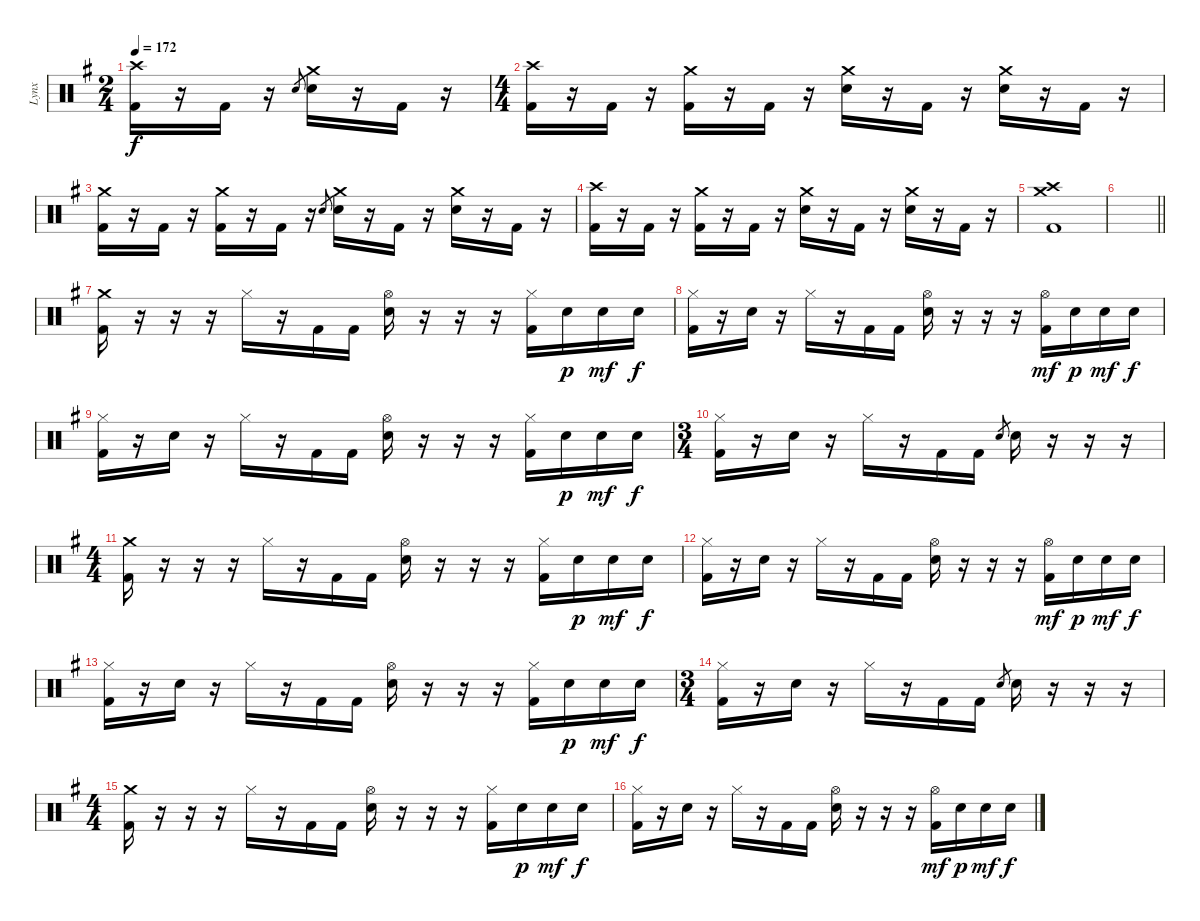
\track ("Lynx" "Lynx") {instrument percussion}
\staff {score}
\articulation defaults
\ts (2 4)
\tempo 172
\clef neutral
\ks g
("Crash high (hit)" "Kick (hit) 2").16{dy f} r.16 "Kick (hit) 2".16 r.16 "Electric Snare (hit)".8{gr} ("Crash medium (hit)" "Electric Snare (hit)").16 r.16 "Kick (hit) 2".16 r.16 |
\ts (4 4)
("Crash high (hit)" "Kick (hit) 2").16 r.16 "Kick (hit) 2".16 r.16 ("Crash medium (hit)" "Kick (hit) 2").16 r.16 "Kick (hit) 2".16 r.16 ("Crash medium (hit)" "Electric Snare (hit)").16 r.16 "Kick (hit) 2".16 r.16 ("Crash medium (hit)" "Electric Snare (hit)").16 r.16 "Kick (hit) 2".16 r.16 |
("Crash medium (hit)" "Kick (hit) 2").16 r.16 "Kick (hit) 2".16 r.16 ("Crash medium (hit)" "Kick (hit) 2").16 r.16 "Kick (hit) 2".16 r.16 "Electric Snare (hit)".8{gr} ("Crash medium (hit)" "Electric Snare (hit)").16 r.16 "Kick (hit) 2".16 r.16 ("Crash medium (hit)" "Electric Snare (hit)").16 r.16 "Kick (hit) 2".16 r.16 |
("Crash high (hit)" "Kick (hit) 2").16 r.16 "Kick (hit) 2".16 r.16 ("Crash medium (hit)" "Kick (hit) 2").16 r.16 "Kick (hit) 2".16 r.16 ("Crash medium (hit)" "Electric Snare (hit)").16 r.16 "Kick (hit) 2".16 r.16 ("Crash medium (hit)" "Electric Snare (hit)").16 r.16 "Kick (hit) 2".16 r.16 |
("Crash high (hit)" "Crash medium (hit)" "Kick (hit) 2").1 |
\barLineRight lightlight
|
\section ("" "")
("Crash medium (hit)" "Kick (hit) 2").16 r.16 r.16 r.16 "Hi-Hat (closed)".16 r.16 "Kick (hit) 2".16 "Kick (hit) 2".16 ("Hi-Hat (open)" "Electric Snare (hit)").16 r.16 r.16 r.16 ("Hi-Hat (closed)" "Kick (hit) 2").16 "Electric Snare (hit)".16{dy p} "Electric Snare (hit)".16{dy mf} "Electric Snare (hit)".16{dy f} |
("Hi-Hat (closed)" "Kick (hit) 2").16 r.16 "Electric Snare (hit)".16 r.16 "Hi-Hat (closed)".16 r.16 "Kick (hit) 2".16 "Kick (hit) 2".16 ("Hi-Hat (open)" "Electric Snare (hit)").16 r.16 r.16 r.16 ("Hi-Hat (open)" "Kick (hit) 2").16{dy mf} "Electric Snare (hit)".16{dy p} "Electric Snare (hit)".16{dy mf} "Electric Snare (hit)".16{dy f} |
("Hi-Hat (closed)" "Kick (hit) 2").16 r.16 "Electric Snare (hit)".16 r.16 "Hi-Hat (closed)".16 r.16 "Kick (hit) 2".16 "Kick (hit) 2".16 ("Hi-Hat (open)" "Electric Snare (hit)").16 r.16 r.16 r.16 ("Hi-Hat (closed)" "Kick (hit) 2").16 "Electric Snare (hit)".16{dy p} "Electric Snare (hit)".16{dy mf} "Electric Snare (hit)".16{dy f} |
\ts (3 4)
("Hi-Hat (closed)" "Kick (hit) 2").16 r.16 "Electric Snare (hit)".16 r.16 "Hi-Hat (closed)".16 r.16 "Kick (hit) 2".16 "Kick (hit) 2".16 "Electric Snare (hit)".8{gr} "Electric Snare (hit)".16 r.16 r.16 r.16 |
\ts (4 4)
("Crash medium (hit)" "Kick (hit) 2").16 r.16 r.16 r.16 "Hi-Hat (closed)".16 r.16 "Kick (hit) 2".16 "Kick (hit) 2".16 ("Hi-Hat (open)" "Electric Snare (hit)").16 r.16 r.16 r.16 ("Hi-Hat (closed)" "Kick (hit) 2").16 "Electric Snare (hit)".16{dy p} "Electric Snare (hit)".16{dy mf} "Electric Snare (hit)".16{dy f} |
("Hi-Hat (closed)" "Kick (hit) 2").16 r.16 "Electric Snare (hit)".16 r.16 "Hi-Hat (closed)".16 r.16 "Kick (hit) 2".16 "Kick (hit) 2".16 ("Hi-Hat (open)" "Electric Snare (hit)").16 r.16 r.16 r.16 ("Hi-Hat (open)" "Kick (hit) 2").16{dy mf} "Electric Snare (hit)".16{dy p} "Electric Snare (hit)".16{dy mf} "Electric Snare (hit)".16{dy f} |
("Hi-Hat (closed)" "Kick (hit) 2").16 r.16 "Electric Snare (hit)".16 r.16 "Hi-Hat (closed)".16 r.16 "Kick (hit) 2".16 "Kick (hit) 2".16 ("Hi-Hat (open)" "Electric Snare (hit)").16 r.16 r.16 r.16 ("Hi-Hat (closed)" "Kick (hit) 2").16 "Electric Snare (hit)".16{dy p} "Electric Snare (hit)".16{dy mf} "Electric Snare (hit)".16{dy f} |
\ts (3 4)
("Hi-Hat (closed)" "Kick (hit) 2").16 r.16 "Electric Snare (hit)".16 r.16 "Hi-Hat (closed)".16 r.16 "Kick (hit) 2".16 "Kick (hit) 2".16 "Electric Snare (hit)".8{gr} "Electric Snare (hit)".16 r.16 r.16 r.16 |
\ts (4 4)
("Crash medium (hit)" "Kick (hit) 2").16 r.16 r.16 r.16 "Hi-Hat (closed)".16 r.16 "Kick (hit) 2".16 "Kick (hit) 2".16 ("Hi-Hat (open)" "Electric Snare (hit)").16 r.16 r.16 r.16 ("Hi-Hat (closed)" "Kick (hit) 2").16 "Electric Snare (hit)".16{dy p} "Electric Snare (hit)".16{dy mf} "Electric Snare (hit)".16{dy f} |
("Hi-Hat (closed)" "Kick (hit) 2").16 r.16 "Electric Snare (hit)".16 r.16 "Hi-Hat (closed)".16 r.16 "Kick (hit) 2".16 "Kick (hit) 2".16 ("Hi-Hat (open)" "Electric Snare (hit)").16 r.16 r.16 r.16 ("Hi-Hat (open)" "Kick (hit) 2").16{dy mf} "Electric Snare (hit)".16{dy p} "Electric Snare (hit)".16{dy mf} "Electric Snare (hit)".16{dy f}
